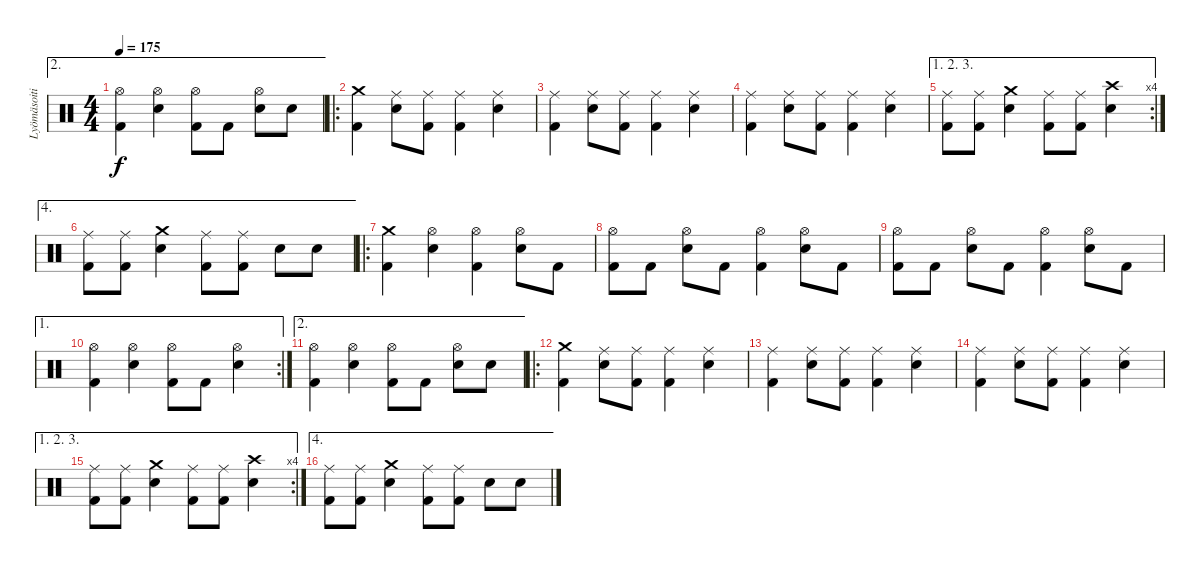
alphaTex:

\track ("Lyömäsoitin" "Lyömäsoiti") {instrument percussion}
\staff {score}
\articulation defaults
\ae 2
\ts (4 4)
\tempo 175
\clef neutral
\ks c
("Hi-Hat (open)" "Kick (hit) 2").4{dy f} ("Hi-Hat (open)" "Snare (hit) 2").4 ("Hi-Hat (open)" "Kick (hit) 2").8 "Kick (hit) 2".8 ("Hi-Hat (open)" "Snare (hit) 2").8 "Snare (hit) 2".8 |
\ro
("Crash medium (hit)" "Kick (hit) 2").4 ("Ride (middle)" "Snare (hit) 2").8 ("Ride (middle)" "Kick (hit) 2").8 ("Ride (middle)" "Kick (hit) 2").4 ("Ride (middle)" "Snare (hit) 2").4 |
("Ride (middle)" "Kick (hit) 2").4 ("Ride (middle)" "Snare (hit) 2").8 ("Ride (middle)" "Kick (hit) 2").8 ("Ride (middle)" "Kick (hit) 2").4 ("Ride (middle)" "Snare (hit) 2").4 |
("Ride (middle)" "Kick (hit) 2").4 ("Ride (middle)" "Snare (hit) 2").8 ("Ride (middle)" "Kick (hit) 2").8 ("Ride (middle)" "Kick (hit) 2").4 ("Ride (middle)" "Snare (hit) 2").4 |
\ae (1 2 3)
\rc 4
("Ride (middle)" "Kick (hit) 2").8 ("Ride (middle)" "Kick (hit) 2").8 ("Crash medium (hit)" "Snare (hit) 2").4 ("Ride (middle)" "Kick (hit) 2").8 ("Ride (middle)" "Kick (hit) 2").8 ("Crash high (hit)" "Snare (hit) 2").4 |
\ae 4
("Ride (middle)" "Kick (hit) 2").8 ("Ride (middle)" "Kick (hit) 2").8 ("Crash medium (hit)" "Snare (hit) 2").4 ("Ride (middle)" "Kick (hit) 2").8 ("Ride (middle)" "Kick (hit) 2").8 "Snare (hit) 2".8 "Snare (hit) 2".8 |
\ro
("Crash medium (hit)" "Kick (hit) 2").4 ("Hi-Hat (open)" "Snare (hit) 2").4 ("Hi-Hat (open)" "Kick (hit) 2").4 ("Hi-Hat (open)" "Snare (hit) 2").8 "Kick (hit) 2".8 |
("Hi-Hat (open)" "Kick (hit) 2").8 "Kick (hit) 2".8 ("Hi-Hat (open)" "Snare (hit) 2").8 "Kick (hit) 2".8 ("Hi-Hat (open)" "Kick (hit) 2").4 ("Hi-Hat (open)" "Snare (hit) 2").8 "Kick (hit) 2".8 |
("Hi-Hat (open)" "Kick (hit) 2").8 "Kick (hit) 2".8 ("Hi-Hat (open)" "Snare (hit) 2").8 "Kick (hit) 2".8 ("Hi-Hat (open)" "Kick (hit) 2").4 ("Hi-Hat (open)" "Snare (hit) 2").8 "Kick (hit) 2".8 |
\ae 1
\rc 2
("Hi-Hat (open)" "Kick (hit) 2").4 ("Hi-Hat (open)" "Snare (hit) 2").4 ("Hi-Hat (open)" "Kick (hit) 2").8 "Kick (hit) 2".8 ("Hi-Hat (open)" "Snare (hit) 2").4 |
\ae 2
("Hi-Hat (open)" "Kick (hit) 2").4 ("Hi-Hat (open)" "Snare (hit) 2").4 ("Hi-Hat (open)" "Kick (hit) 2").8 "Kick (hit) 2".8 ("Hi-Hat (open)" "Snare (hit) 2").8 "Snare (hit) 2".8 |
\ro
("Crash medium (hit)" "Kick (hit) 2").4 ("Ride (middle)" "Snare (hit) 2").8 ("Ride (middle)" "Kick (hit) 2").8 ("Ride (middle)" "Kick (hit) 2").4 ("Ride (middle)" "Snare (hit) 2").4 |
("Ride (middle)" "Kick (hit) 2").4 ("Ride (middle)" "Snare (hit) 2").8 ("Ride (middle)" "Kick (hit) 2").8 ("Ride (middle)" "Kick (hit) 2").4 ("Ride (middle)" "Snare (hit) 2").4 |
("Ride (middle)" "Kick (hit) 2").4 ("Ride (middle)" "Snare (hit) 2").8 ("Ride (middle)" "Kick (hit) 2").8 ("Ride (middle)" "Kick (hit) 2").4 ("Ride (middle)" "Snare (hit) 2").4 |
\ae (1 2 3)
\rc 4
("Ride (middle)" "Kick (hit) 2").8 ("Ride (middle)" "Kick (hit) 2").8 ("Crash medium (hit)" "Snare (hit) 2").4 ("Ride (middle)" "Kick (hit) 2").8 ("Ride (middle)" "Kick (hit) 2").8 ("Crash high (hit)" "Snare (hit) 2").4 |
\ae 4
("Ride (middle)" "Kick (hit) 2").8 ("Ride (middle)" "Kick (hit) 2").8 ("Crash medium (hit)" "Snare (hit) 2").4 ("Ride (middle)" "Kick (hit) 2").8 ("Ride (middle)" "Kick (hit) 2").8 "Snare (hit) 2".8 "Snare (hit) 2".8
